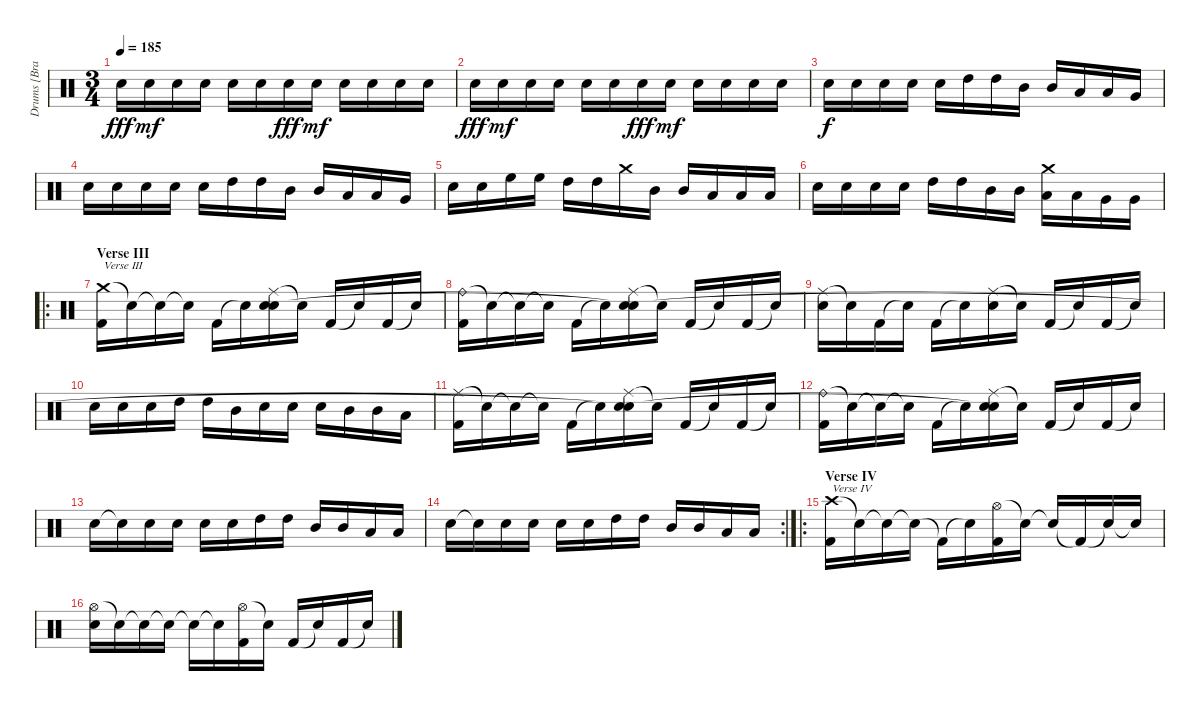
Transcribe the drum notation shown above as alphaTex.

\track ("Drums [Brann Dailor]" "Drums [Bra") {instrument percussion}
\staff {score}
\articulation defaults
\ts (3 4)
\tempo 185
\clef neutral
\ks c "Electric Snare (hit)".16{dy fff} "Electric Snare (hit)".16{dy mf} "Electric Snare (hit)".16 "Electric Snare (hit)".16 "Electric Snare (hit)".16 "Electric Snare (hit)".16 "Electric Snare (hit)".16{dy fff} "Electric Snare (hit)".16{dy mf} "Electric Snare (hit)".16 "Electric Snare (hit)".16 "Electric Snare (hit)".16 "Electric Snare (hit)".16
|
"Electric Snare (hit)".16{dy fff} "Electric Snare (hit)".16{dy mf} "Electric Snare (hit)".16 "Electric Snare (hit)".16 "Electric Snare (hit)".16 "Electric Snare (hit)".16 "Electric Snare (hit)".16{dy fff} "Electric Snare (hit)".16{dy mf} "Electric Snare (hit)".16 "Electric Snare (hit)".16 "Electric Snare (hit)".16 "Electric Snare (hit)".16 |
"Electric Snare (hit)".16{dy f} "Electric Snare (hit)".16 "Electric Snare (hit)".16 "Electric Snare (hit)".16 "Electric Snare (hit)".16 "High Tom (hit)".16 "High Tom (hit)".16 "Mid Tom (hit)".16 "Mid Tom (hit)".16 "Low Tom (hit)".16 "Low Tom (hit)".16 "Very Low Tom (hit)".16 |
"Electric Snare (hit)".16 "Electric Snare (hit)".16 "Electric Snare (hit)".16 "Electric Snare (hit)".16 "Electric Snare (hit)".16 "High Tom (hit)".16 "High Tom (hit)".16 "Mid Tom (hit)".16 "Mid Tom (hit)".16 "Low Tom (hit)".16 "Low Tom (hit)".16 "Very Low Tom (hit)".16 |
"Electric Snare (hit)".16 "Electric Snare (hit)".16 "High Floor Tom (hit)".16 "High Floor Tom (hit)".16 "High Tom (hit)".16 "High Tom (hit)".16 "Crash medium (hit)".16 "Mid Tom (hit)".16 "Mid Tom (hit)".16 "Low Tom (hit)".16 "Low Tom (hit)".16 "Low Tom (hit)".16 |
"Electric Snare (hit)".16 "Electric Snare (hit)".16 "Electric Snare (hit)".16 "Electric Snare (hit)".16 "High Tom (hit)".16 "High Tom (hit)".16 "Mid Tom (hit)".16 "Mid Tom (hit)".16 ("Crash medium (hit)" "Low Tom (hit)").16 "Low Tom (hit)".16 "Very Low Tom (hit)".16 "Very Low Tom (hit)".16 |
\ro
\section ("" "Verse III")
("Crash medium (hit)" "Kick (hit) 2").16{txt "Verse III"} "Snare (hit)"{t}.16 "Snare (hit)"{t}.16 "Snare (hit)"{t}.16 "Kick (hit) 2".16 "Snare (hit)"{t}.16 ("Ride (middle)" "Electric Snare (hit)" "Snare (hit)").16 "Snare (hit)"{t}.16 "Kick (hit) 2".16 "Snare (hit)"{t}.16 "Kick (hit) 2".16 "Snare (hit)"{t}.16 |
("Ride (bell)" "Kick (hit) 2").16 "Snare (hit)"{t}.16 "Snare (hit)"{t}.16 "Snare (hit)"{t}.16 "Kick (hit) 2".16 "Snare (hit)"{t}.16 ("Ride (middle)" "Electric Snare (hit)" "Snare (hit)"{t}).16 "Snare (hit)"{t}.16 "Kick (hit) 2".16 "Snare (hit)"{t}.16 "Kick (hit) 2".16 "Snare (hit)"{t}.16 |
("Ride (middle)" "Electric Snare (hit)").16 "Snare (hit)"{t}.16 "Kick (hit) 2".16 "Snare (hit)"{t}.16 "Kick (hit) 2".16 "Snare (hit)"{t}.16 ("Ride (middle)" "Electric Snare (hit)").16 "Snare (hit)"{t}.16 "Kick (hit) 2".16 "Snare (hit)"{t}.16 "Kick (hit) 2".16 "Snare (hit)"{t}.16 |
"Electric Snare (hit)".16 "Electric Snare (hit)".16 "Electric Snare (hit)".16 "High Tom (hit)".16 "High Tom (hit)".16 "Mid Tom (hit)".16 "Electric Snare (hit)".16 "Electric Snare (hit)".16 "Electric Snare (hit)".16 "Mid Tom (hit)".16 "Mid Tom (hit)".16 "Low Tom (hit)".16 |
("Ride (middle)" "Kick (hit) 2").16 "Snare (hit)"{t}.16 "Snare (hit)"{t}.16 "Snare (hit)"{t}.16 "Kick (hit) 2".16 "Snare (hit)"{t}.16 ("Ride (middle)" "Electric Snare (hit)" "Snare (hit)"{t}).16 "Snare (hit)"{t}.16 "Kick (hit) 2".16 "Snare (hit)"{t}.16 "Kick (hit) 2".16 "Snare (hit)"{t}.16 |
("Ride (bell)" "Kick (hit) 2").16 "Snare (hit)"{t}.16 "Snare (hit)"{t}.16 "Snare (hit)"{t}.16 "Kick (hit) 2".16 "Snare (hit)"{t}.16 ("Ride (middle)" "Electric Snare (hit)" "Snare (hit)"{t}).16 "Snare (hit)"{t}.16 "Kick (hit) 2".16 "Snare (hit)"{t}.16 "Kick (hit) 2".16 "Snare (hit)"{t}.16 |
"Electric Snare (hit)".16 "Snare (hit)"{t}.16 "Electric Snare (hit)".16 "Electric Snare (hit)".16 "Electric Snare (hit)".16 "Electric Snare (hit)".16 "High Tom (hit)".16 "High Tom (hit)".16 "Mid Tom (hit)".16 "Mid Tom (hit)".16 "Low Tom (hit)".16 "Low Tom (hit)".16 |
\rc 2 "Electric Snare (hit)".16 "Snare (hit)"{t}.16 "Electric Snare (hit)".16 "Electric Snare (hit)".16 "Electric Snare (hit)".16 "Electric Snare (hit)".16 "High Tom (hit)".16 "High Tom (hit)".16 "Mid Tom (hit)".16 "Mid Tom (hit)".16 "Low Tom (hit)".16 "Low Tom (hit)".16
|
\ro
\section ("" "Verse IV")
("Crash high (hit)" "Kick (hit) 2").16{txt "Verse IV"} "Snare (hit)"{t}.16 "Snare (hit)"{t}.16 "Snare (hit)"{t}.16 "Kick (hit) 2"{t}.16 "Snare (hit)"{t}.16 ("Hi-Hat (open)" "Kick (hit) 2").16 "Snare (hit)"{t}.16 "Snare (hit)"{t}.16 "Kick (hit) 2"{t}.16 "Snare (hit)"{t}.16 "Snare (hit)"{t}.16 |
("Hi-Hat (open)" "Electric Snare (hit)").16 "Snare (hit)"{t}.16 "Snare (hit)"{t}.16 "Snare (hit)"{t}.16 "Snare (hit)"{t}.16 "Snare (hit)"{t}.16 ("Hi-Hat (open)" "Kick (hit) 2").16 "Snare (hit)"{t}.16 "Kick (hit) 2".16 "Snare (hit)"{t}.16 "Kick (hit) 2".16 "Snare (hit)"{t}.16
